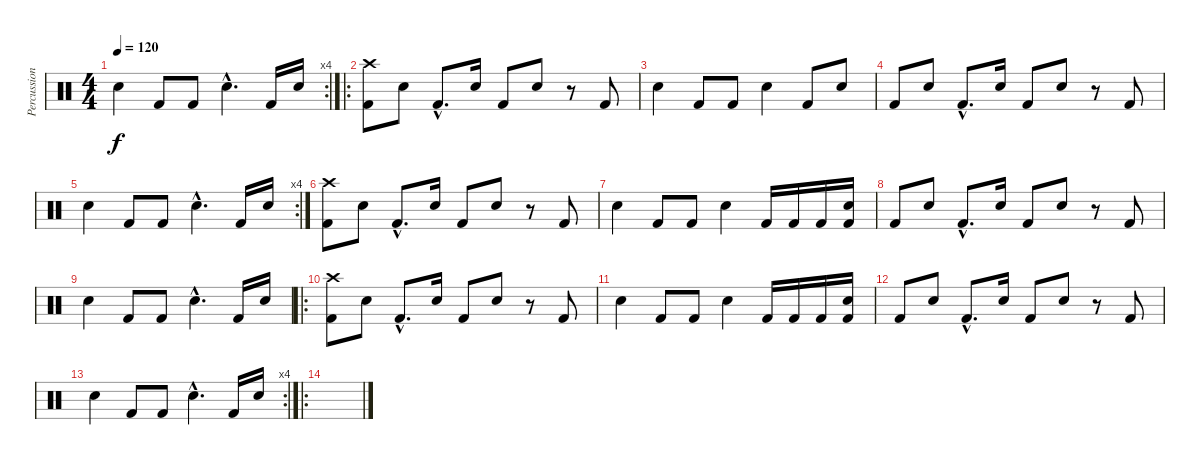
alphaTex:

\track ("Percussions" "Percussion") {instrument percussion}
\staff {score}
\articulation defaults
\rc 4
\ts (4 4)
\tempo 120
\clef neutral
\ks c "Snare (hit) 2".4{dy f} "Kick (hit) 2".8 "Kick (hit) 2".8 "Snare (hit) 2"{hac}.4{d} "Kick (hit) 2".16 "Snare (hit) 2".16
|
\ro
("Crash high (hit)" "Kick (hit) 2").8 "Snare (hit) 2".8 "Kick (hit) 2"{hac}.8{d} "Snare (hit) 2".16 "Kick (hit) 2".8 "Snare (hit) 2".8 r.8 "Kick (hit) 2".8 |
"Snare (hit) 2".4 "Kick (hit) 2".8 "Kick (hit) 2".8 "Snare (hit) 2".4 "Kick (hit) 2".8 "Snare (hit) 2".8 |
"Kick (hit) 2".8 "Snare (hit) 2".8 "Kick (hit) 2"{hac}.8{d} "Snare (hit) 2".16 "Kick (hit) 2".8 "Snare (hit) 2".8 r.8 "Kick (hit) 2".8 |
\rc 4 "Snare (hit) 2".4 "Kick (hit) 2".8 "Kick (hit) 2".8 "Snare (hit) 2"{hac}.4{d} "Kick (hit) 2".16 "Snare (hit) 2".16
|
("Crash high (hit)" "Kick (hit) 2").8 "Snare (hit) 2".8 "Kick (hit) 2"{hac}.8{d} "Snare (hit) 2".16 "Kick (hit) 2".8 "Snare (hit) 2".8 r.8 "Kick (hit) 2".8 |
"Snare (hit) 2".4 "Kick (hit) 2".8 "Kick (hit) 2".8 "Snare (hit) 2".4 "Kick (hit) 2".16 "Kick (hit) 2".16 "Kick (hit) 2".16 ("Snare (hit) 2" "Kick (hit) 2").16 |
"Kick (hit) 2".8 "Snare (hit) 2".8 "Kick (hit) 2"{hac}.8{d} "Snare (hit) 2".16 "Kick (hit) 2".8 "Snare (hit) 2".8 r.8 "Kick (hit) 2".8 |
"Snare (hit) 2".4 "Kick (hit) 2".8 "Kick (hit) 2".8 "Snare (hit) 2"{hac}.4{d} "Kick (hit) 2".16 "Snare (hit) 2".16 |
\ro
("Crash high (hit)" "Kick (hit) 2").8 "Snare (hit) 2".8 "Kick (hit) 2"{hac}.8{d} "Snare (hit) 2".16 "Kick (hit) 2".8 "Snare (hit) 2".8 r.8 "Kick (hit) 2".8 |
"Snare (hit) 2".4 "Kick (hit) 2".8 "Kick (hit) 2".8 "Snare (hit) 2".4 "Kick (hit) 2".16 "Kick (hit) 2".16 "Kick (hit) 2".16 ("Snare (hit) 2" "Kick (hit) 2").16 |
"Kick (hit) 2".8 "Snare (hit) 2".8 "Kick (hit) 2"{hac}.8{d} "Snare (hit) 2".16 "Kick (hit) 2".8 "Snare (hit) 2".8 r.8 "Kick (hit) 2".8 |
\rc 4 "Snare (hit) 2".4 "Kick (hit) 2".8 "Kick (hit) 2".8 "Snare (hit) 2"{hac}.4{d} "Kick (hit) 2".16 "Snare (hit) 2".16
|
\ro
